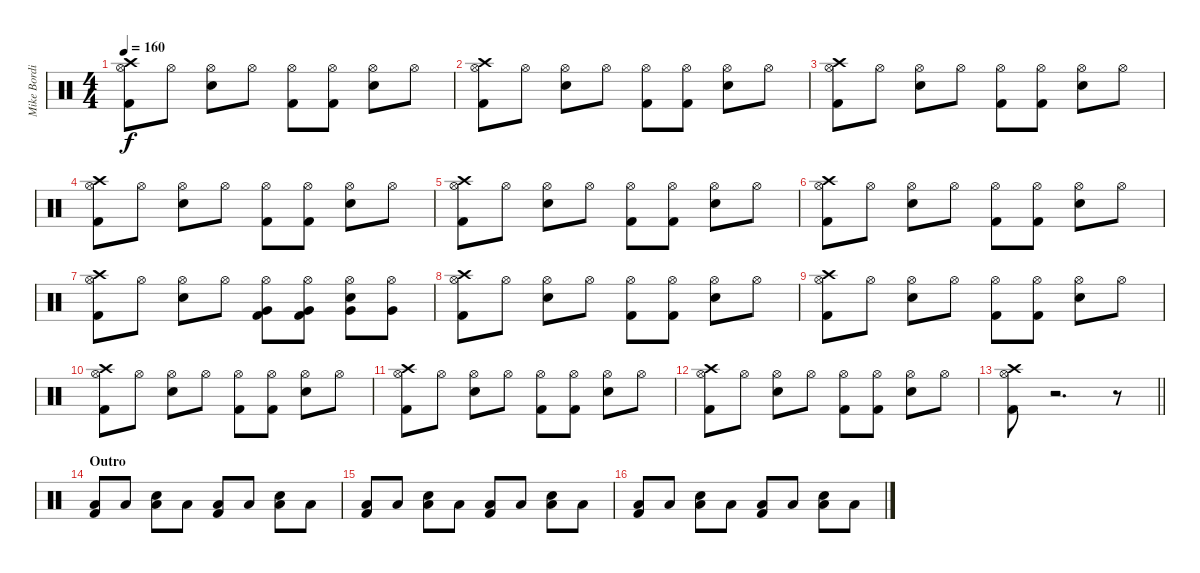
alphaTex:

\track ("Mike Bordin - Drums" "Mike Bordi") {instrument percussion}
\staff {score}
\articulation defaults
\ts (4 4)
\tempo 160
\clef neutral
\ks c
("Crash high (hit)" "Hi-Hat (open)" "Kick (hit) 2").8{dy f} "Hi-Hat (open)".8 ("Hi-Hat (open)" "Snare (hit) 2").8 "Hi-Hat (open)".8 ("Hi-Hat (open)" "Kick (hit) 2").8 ("Hi-Hat (open)" "Kick (hit) 2").8 ("Hi-Hat (open)" "Snare (hit) 2").8 "Hi-Hat (open)".8 |
("Crash high (hit)" "Hi-Hat (open)" "Kick (hit) 2").8 "Hi-Hat (open)".8 ("Hi-Hat (open)" "Snare (hit) 2").8 "Hi-Hat (open)".8 ("Hi-Hat (open)" "Kick (hit) 2").8 ("Hi-Hat (open)" "Kick (hit) 2").8 ("Hi-Hat (open)" "Snare (hit) 2").8 "Hi-Hat (open)".8 |
("Crash high (hit)" "Hi-Hat (open)" "Kick (hit) 2").8 "Hi-Hat (open)".8 ("Hi-Hat (open)" "Snare (hit) 2").8 "Hi-Hat (open)".8 ("Hi-Hat (open)" "Kick (hit) 2").8 ("Hi-Hat (open)" "Kick (hit) 2").8 ("Hi-Hat (open)" "Snare (hit) 2").8 "Hi-Hat (open)".8 |
("Crash high (hit)" "Hi-Hat (open)" "Kick (hit) 2").8 "Hi-Hat (open)".8 ("Hi-Hat (open)" "Snare (hit) 2").8 "Hi-Hat (open)".8 ("Hi-Hat (open)" "Kick (hit) 2").8 ("Hi-Hat (open)" "Kick (hit) 2").8 ("Hi-Hat (open)" "Snare (hit) 2").8 "Hi-Hat (open)".8 |
("Crash high (hit)" "Hi-Hat (open)" "Kick (hit) 2").8 "Hi-Hat (open)".8 ("Hi-Hat (open)" "Snare (hit) 2").8 "Hi-Hat (open)".8 ("Hi-Hat (open)" "Kick (hit) 2").8 ("Hi-Hat (open)" "Kick (hit) 2").8 ("Hi-Hat (open)" "Snare (hit) 2").8 "Hi-Hat (open)".8 |
("Crash high (hit)" "Hi-Hat (open)" "Kick (hit) 2").8 "Hi-Hat (open)".8 ("Hi-Hat (open)" "Snare (hit) 2").8 "Hi-Hat (open)".8 ("Hi-Hat (open)" "Kick (hit) 2").8 ("Hi-Hat (open)" "Kick (hit) 2").8 ("Hi-Hat (open)" "Snare (hit) 2").8 "Hi-Hat (open)".8 |
("Crash high (hit)" "Hi-Hat (open)" "Kick (hit) 2").8 "Hi-Hat (open)".8 ("Hi-Hat (open)" "Snare (hit) 2").8 "Hi-Hat (open)".8 ("Hi-Hat (open)" "Very Low Tom (hit)" "Kick (hit) 2").8 ("Hi-Hat (open)" "Very Low Tom (hit)" "Kick (hit) 2").8 ("Hi-Hat (open)" "Snare (hit) 2" "Very Low Tom (hit)").8 ("Hi-Hat (open)" "Very Low Tom (hit)").8 |
("Crash high (hit)" "Hi-Hat (open)" "Kick (hit) 2").8 "Hi-Hat (open)".8 ("Hi-Hat (open)" "Snare (hit) 2").8 "Hi-Hat (open)".8 ("Hi-Hat (open)" "Kick (hit) 2").8 ("Hi-Hat (open)" "Kick (hit) 2").8 ("Hi-Hat (open)" "Snare (hit) 2").8 "Hi-Hat (open)".8 |
("Crash high (hit)" "Hi-Hat (open)" "Kick (hit) 2").8 "Hi-Hat (open)".8 ("Hi-Hat (open)" "Snare (hit) 2").8 "Hi-Hat (open)".8 ("Hi-Hat (open)" "Kick (hit) 2").8 ("Hi-Hat (open)" "Kick (hit) 2").8 ("Hi-Hat (open)" "Snare (hit) 2").8 "Hi-Hat (open)".8 |
("Crash high (hit)" "Hi-Hat (open)" "Kick (hit) 2").8 "Hi-Hat (open)".8 ("Hi-Hat (open)" "Snare (hit) 2").8 "Hi-Hat (open)".8 ("Hi-Hat (open)" "Kick (hit) 2").8 ("Hi-Hat (open)" "Kick (hit) 2").8 ("Hi-Hat (open)" "Snare (hit) 2").8 "Hi-Hat (open)".8 |
("Crash high (hit)" "Hi-Hat (open)" "Kick (hit) 2").8 "Hi-Hat (open)".8 ("Hi-Hat (open)" "Snare (hit) 2").8 "Hi-Hat (open)".8 ("Hi-Hat (open)" "Kick (hit) 2").8 ("Hi-Hat (open)" "Kick (hit) 2").8 ("Hi-Hat (open)" "Snare (hit) 2").8 "Hi-Hat (open)".8 |
("Crash high (hit)" "Hi-Hat (open)" "Kick (hit) 2").8 "Hi-Hat (open)".8 ("Hi-Hat (open)" "Snare (hit) 2").8 "Hi-Hat (open)".8 ("Hi-Hat (open)" "Kick (hit) 2").8 ("Hi-Hat (open)" "Kick (hit) 2").8 ("Hi-Hat (open)" "Snare (hit) 2").8 "Hi-Hat (open)".8 |
\barLineRight lightlight
("Crash high (hit)" "Hi-Hat (open)" "Kick (hit) 2").8 r.2{d} r.8 |
\section ("" "Outro")
("Low Floor Tom (hit)" "Kick (hit) 2").8 "Low Floor Tom (hit)".8 ("Snare (hit) 2" "Low Floor Tom (hit)").8 "Low Floor Tom (hit)".8 ("Low Floor Tom (hit)" "Kick (hit) 2").8 "Low Floor Tom (hit)".8 ("Snare (hit) 2" "Low Floor Tom (hit)").8 "Low Floor Tom (hit)".8 |
("Low Floor Tom (hit)" "Kick (hit) 2").8 "Low Floor Tom (hit)".8 ("Snare (hit) 2" "Low Floor Tom (hit)").8 "Low Floor Tom (hit)".8 ("Low Floor Tom (hit)" "Kick (hit) 2").8 "Low Floor Tom (hit)".8 ("Snare (hit) 2" "Low Floor Tom (hit)").8 "Low Floor Tom (hit)".8 |
("Low Floor Tom (hit)" "Kick (hit) 2").8 "Low Floor Tom (hit)".8 ("Snare (hit) 2" "Low Floor Tom (hit)").8 "Low Floor Tom (hit)".8 ("Low Floor Tom (hit)" "Kick (hit) 2").8 "Low Floor Tom (hit)".8 ("Snare (hit) 2" "Low Floor Tom (hit)").8 "Low Floor Tom (hit)".8
